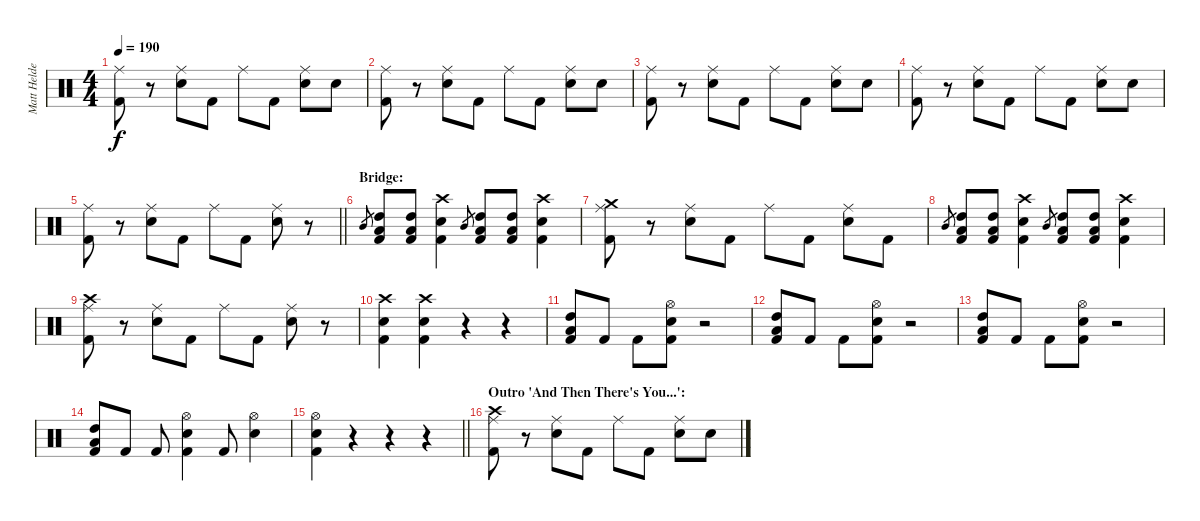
\track ("Matt Helders (Percussion)" "Matt Helde") {instrument percussion}
\staff {score}
\articulation defaults
\ts (4 4)
\tempo 190
\clef neutral
\ks c
("Ride (middle)" "Kick (hit) 2").8{dy f} r.8 ("Ride (middle)" "Snare (hit) 2").8 "Kick (hit) 2".8 "Ride (middle)".8 "Kick (hit) 2".8 ("Ride (middle)" "Snare (hit) 2").8 "Snare (hit) 2".8 |
("Ride (middle)" "Kick (hit) 2").8 r.8 ("Ride (middle)" "Snare (hit) 2").8 "Kick (hit) 2".8 "Ride (middle)".8 "Kick (hit) 2".8 ("Ride (middle)" "Snare (hit) 2").8 "Snare (hit) 2".8 |
("Ride (middle)" "Kick (hit) 2").8 r.8 ("Ride (middle)" "Snare (hit) 2").8 "Kick (hit) 2".8 "Ride (middle)".8 "Kick (hit) 2".8 ("Ride (middle)" "Snare (hit) 2").8 "Snare (hit) 2".8 |
("Ride (middle)" "Kick (hit) 2").8 r.8 ("Ride (middle)" "Snare (hit) 2").8 "Kick (hit) 2".8 "Ride (middle)".8 "Kick (hit) 2".8 ("Ride (middle)" "Snare (hit) 2").8 "Snare (hit) 2".8 |
\barLineRight lightlight
("Ride (middle)" "Kick (hit) 2").8 r.8 ("Ride (middle)" "Snare (hit) 2").8 "Kick (hit) 2".8 "Ride (middle)".8 "Kick (hit) 2".8 ("Ride (middle)" "Snare (hit) 2").8 r.8 |
\section ("" "Bridge:")
"Mid Tom (hit)".8{gr} ("High Tom (hit)" "Low Tom (hit)" "Kick (hit) 2").8 ("High Tom (hit)" "Low Tom (hit)" "Kick (hit) 2").8 ("Crash high (hit)" "Snare (hit) 2" "Kick (hit) 2").4 "Mid Tom (hit)".8{gr} ("High Tom (hit)" "Low Tom (hit)" "Kick (hit) 2").8 ("High Tom (hit)" "Low Tom (hit)" "Kick (hit) 2").8 ("Crash high (hit)" "Snare (hit) 2" "Kick (hit) 2").4 |
("Crash medium (hit)" "Ride (middle)" "Kick (hit) 2").8 r.8 ("Ride (middle)" "Snare (hit) 2").8 "Kick (hit) 2".8 "Ride (middle)".8 "Kick (hit) 2".8 ("Ride (middle)" "Snare (hit) 2").8 "Kick (hit) 2".8 |
"Mid Tom (hit)".8{gr} ("High Tom (hit)" "Low Tom (hit)" "Kick (hit) 2").8 ("High Tom (hit)" "Low Tom (hit)" "Kick (hit) 2").8 ("Crash high (hit)" "Snare (hit) 2" "Kick (hit) 2").4 "Mid Tom (hit)".8{gr} ("High Tom (hit)" "Low Tom (hit)" "Kick (hit) 2").8 ("High Tom (hit)" "Low Tom (hit)" "Kick (hit) 2").8 ("Crash high (hit)" "Snare (hit) 2" "Kick (hit) 2").4 |
("Crash high (hit)" "Ride (middle)" "Kick (hit) 2").8 r.8 ("Ride (middle)" "Snare (hit) 2").8 "Kick (hit) 2".8 "Ride (middle)".8 "Kick (hit) 2".8 ("Ride (middle)" "Snare (hit) 2").8 r.8 |
("Crash high (hit)" "Snare (hit) 2" "Kick (hit) 2").4 ("Crash high (hit)" "Snare (hit) 2" "Kick (hit) 2").4 r.4 r.4 |
("High Tom (hit)" "Low Tom (hit)" "Kick (hit) 2").8 "Kick (hit) 2".8 "Kick (hit) 2".8 ("Hi-Hat (open)" "Snare (hit) 2" "Kick (hit) 2").8 r.2 |
("High Tom (hit)" "Low Tom (hit)" "Kick (hit) 2").8 "Kick (hit) 2".8 "Kick (hit) 2".8 ("Hi-Hat (open)" "Snare (hit) 2" "Kick (hit) 2").8 r.2 |
("High Tom (hit)" "Low Tom (hit)" "Kick (hit) 2").8 "Kick (hit) 2".8 "Kick (hit) 2".8 ("Hi-Hat (open)" "Snare (hit) 2" "Kick (hit) 2").8 r.2 |
("High Tom (hit)" "Low Tom (hit)" "Kick (hit) 2").8 "Kick (hit) 2".8 "Kick (hit) 2".8 ("Hi-Hat (open)" "Snare (hit) 2" "Kick (hit) 2").4 "Kick (hit) 2".8 ("Hi-Hat (open)" "Snare (hit) 2").4 |
\barLineRight lightlight
("Hi-Hat (open)" "Snare (hit) 2" "Kick (hit) 2").4 r.4 r.4 r.4 |
\section ("" "Outro 'And Then There's You...':")
("Crash high (hit)" "Ride (middle)" "Kick (hit) 2").8 r.8 ("Ride (middle)" "Snare (hit) 2").8 "Kick (hit) 2".8 "Ride (middle)".8 "Kick (hit) 2".8 ("Ride (middle)" "Snare (hit) 2").8 "Snare (hit) 2".8
